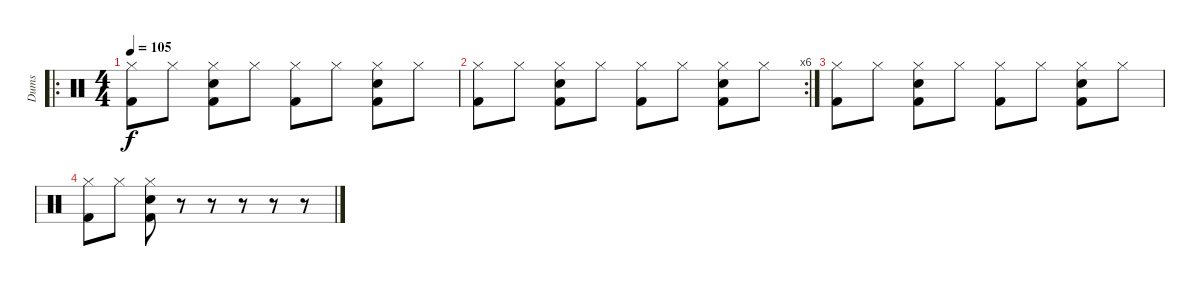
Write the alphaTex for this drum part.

\track ("Dums" "Dums") {instrument percussion}
\staff {score}
\articulation defaults
\ro
\ts (4 4)
\tempo 105
\clef neutral
\ks c
("Hi-Hat (closed)" "Kick (hit) 2").8{dy f} "Hi-Hat (closed)".8 ("Hi-Hat (closed)" "Electric Snare (hit)" "Kick (hit) 2").8 "Hi-Hat (closed)".8 ("Hi-Hat (closed)" "Kick (hit) 2").8 "Hi-Hat (closed)".8 ("Hi-Hat (closed)" "Electric Snare (hit)" "Kick (hit) 2").8 "Hi-Hat (closed)".8 |
\rc 6
("Hi-Hat (closed)" "Kick (hit) 2").8 "Hi-Hat (closed)".8 ("Hi-Hat (closed)" "Electric Snare (hit)" "Kick (hit) 2").8 "Hi-Hat (closed)".8 ("Hi-Hat (closed)" "Kick (hit) 2").8 "Hi-Hat (closed)".8 ("Hi-Hat (closed)" "Electric Snare (hit)" "Kick (hit) 2").8 "Hi-Hat (closed)".8 |
("Hi-Hat (closed)" "Kick (hit) 2").8 "Hi-Hat (closed)".8 ("Hi-Hat (closed)" "Electric Snare (hit)" "Kick (hit) 2").8 "Hi-Hat (closed)".8 ("Hi-Hat (closed)" "Kick (hit) 2").8 "Hi-Hat (closed)".8 ("Hi-Hat (closed)" "Electric Snare (hit)" "Kick (hit) 2").8 "Hi-Hat (closed)".8 |
("Hi-Hat (closed)" "Kick (hit) 2").8 "Hi-Hat (closed)".8 ("Hi-Hat (closed)" "Electric Snare (hit)" "Kick (hit) 2").8 r.8 r.8 r.8 r.8 r.8
